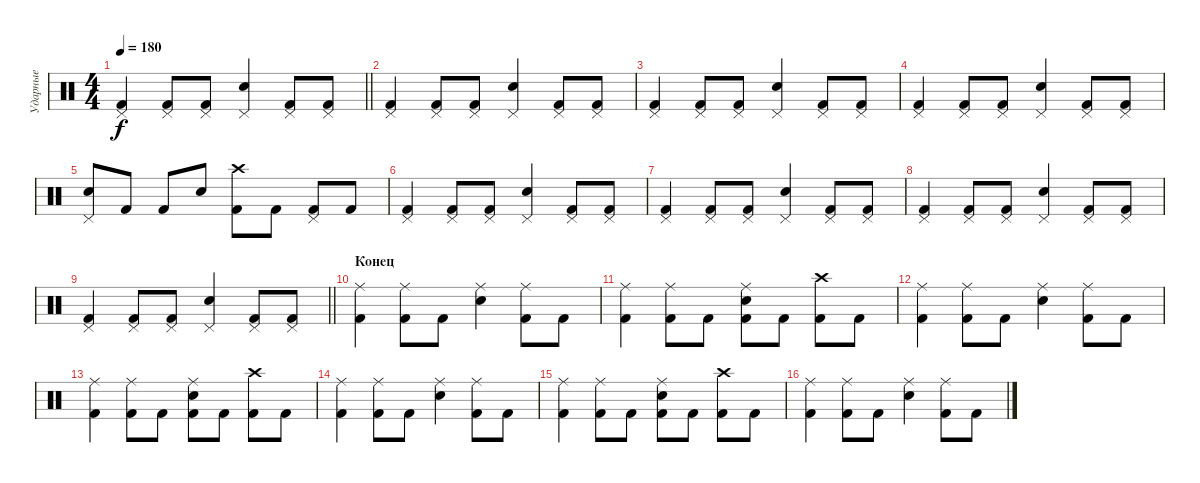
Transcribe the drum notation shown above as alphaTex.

\track ("Ударные" "Ударные") {instrument percussion}
\staff {score}
\articulation defaults
\ts (4 4)
\tempo 180
\clef neutral
\barLineRight lightlight
\ks c
("Kick (hit) 2" "Pedal Hi-Hat (hit)").4{dy f} ("Kick (hit) 2" "Pedal Hi-Hat (hit)").8 ("Kick (hit) 2" "Pedal Hi-Hat (hit)").8 ("Snare (hit) 2" "Pedal Hi-Hat (hit)").4 ("Kick (hit) 2" "Pedal Hi-Hat (hit)").8 ("Kick (hit) 2" "Pedal Hi-Hat (hit)").8 |
("Kick (hit) 2" "Pedal Hi-Hat (hit)").4 ("Kick (hit) 2" "Pedal Hi-Hat (hit)").8 ("Kick (hit) 2" "Pedal Hi-Hat (hit)").8 ("Snare (hit) 2" "Pedal Hi-Hat (hit)").4 ("Kick (hit) 2" "Pedal Hi-Hat (hit)").8 ("Kick (hit) 2" "Pedal Hi-Hat (hit)").8 |
("Kick (hit) 2" "Pedal Hi-Hat (hit)").4 ("Kick (hit) 2" "Pedal Hi-Hat (hit)").8 ("Kick (hit) 2" "Pedal Hi-Hat (hit)").8 ("Snare (hit) 2" "Pedal Hi-Hat (hit)").4 ("Kick (hit) 2" "Pedal Hi-Hat (hit)").8 ("Kick (hit) 2" "Pedal Hi-Hat (hit)").8 |
("Kick (hit) 2" "Pedal Hi-Hat (hit)").4 ("Kick (hit) 2" "Pedal Hi-Hat (hit)").8 ("Kick (hit) 2" "Pedal Hi-Hat (hit)").8 ("Snare (hit) 2" "Pedal Hi-Hat (hit)").4 ("Kick (hit) 2" "Pedal Hi-Hat (hit)").8 ("Kick (hit) 2" "Pedal Hi-Hat (hit)").8 |
("Snare (hit) 2" "Pedal Hi-Hat (hit)").8 "Kick (hit) 2".8 "Kick (hit) 2".8 "Snare (hit) 2".8 ("Kick (hit) 2" "Crash high (hit)").8 "Kick (hit) 2".8 ("Kick (hit) 2" "Pedal Hi-Hat (hit)").8 "Kick (hit) 2".8 |
("Kick (hit) 2" "Pedal Hi-Hat (hit)").4 ("Kick (hit) 2" "Pedal Hi-Hat (hit)").8 ("Kick (hit) 2" "Pedal Hi-Hat (hit)").8 ("Snare (hit) 2" "Pedal Hi-Hat (hit)").4 ("Kick (hit) 2" "Pedal Hi-Hat (hit)").8 ("Kick (hit) 2" "Pedal Hi-Hat (hit)").8 |
("Kick (hit) 2" "Pedal Hi-Hat (hit)").4 ("Kick (hit) 2" "Pedal Hi-Hat (hit)").8 ("Kick (hit) 2" "Pedal Hi-Hat (hit)").8 ("Snare (hit) 2" "Pedal Hi-Hat (hit)").4 ("Kick (hit) 2" "Pedal Hi-Hat (hit)").8 ("Kick (hit) 2" "Pedal Hi-Hat (hit)").8 |
("Kick (hit) 2" "Pedal Hi-Hat (hit)").4 ("Kick (hit) 2" "Pedal Hi-Hat (hit)").8 ("Kick (hit) 2" "Pedal Hi-Hat (hit)").8 ("Snare (hit) 2" "Pedal Hi-Hat (hit)").4 ("Kick (hit) 2" "Pedal Hi-Hat (hit)").8 ("Kick (hit) 2" "Pedal Hi-Hat (hit)").8 |
\barLineRight lightlight
("Kick (hit) 2" "Pedal Hi-Hat (hit)").4 ("Kick (hit) 2" "Pedal Hi-Hat (hit)").8 ("Kick (hit) 2" "Pedal Hi-Hat (hit)").8 ("Snare (hit) 2" "Pedal Hi-Hat (hit)").4 ("Kick (hit) 2" "Pedal Hi-Hat (hit)").8 ("Kick (hit) 2" "Pedal Hi-Hat (hit)").8 |
\section ("" "Конец")
("Kick (hit) 2" "Ride (middle)").4 ("Kick (hit) 2" "Ride (middle)").8 "Kick (hit) 2".8 ("Snare (hit) 2" "Ride (middle)").4 ("Kick (hit) 2" "Ride (middle)").8 "Kick (hit) 2".8 |
("Kick (hit) 2" "Ride (middle)").4 ("Kick (hit) 2" "Ride (middle)").8 "Kick (hit) 2".8 ("Kick (hit) 2" "Snare (hit) 2" "Ride (middle)").8 "Kick (hit) 2".8 ("Kick (hit) 2" "Crash high (hit)").8 "Kick (hit) 2".8 |
("Kick (hit) 2" "Ride (middle)").4 ("Kick (hit) 2" "Ride (middle)").8 "Kick (hit) 2".8 ("Snare (hit) 2" "Ride (middle)").4 ("Kick (hit) 2" "Ride (middle)").8 "Kick (hit) 2".8 |
("Kick (hit) 2" "Ride (middle)").4 ("Kick (hit) 2" "Ride (middle)").8 "Kick (hit) 2".8 ("Kick (hit) 2" "Snare (hit) 2" "Ride (middle)").8 "Kick (hit) 2".8 ("Kick (hit) 2" "Crash high (hit)").8 "Kick (hit) 2".8 |
("Kick (hit) 2" "Ride (middle)").4 ("Kick (hit) 2" "Ride (middle)").8 "Kick (hit) 2".8 ("Snare (hit) 2" "Ride (middle)").4 ("Kick (hit) 2" "Ride (middle)").8 "Kick (hit) 2".8 |
("Kick (hit) 2" "Ride (middle)").4 ("Kick (hit) 2" "Ride (middle)").8 "Kick (hit) 2".8 ("Kick (hit) 2" "Snare (hit) 2" "Ride (middle)").8 "Kick (hit) 2".8 ("Kick (hit) 2" "Crash high (hit)").8 "Kick (hit) 2".8 |
("Kick (hit) 2" "Ride (middle)").4 ("Kick (hit) 2" "Ride (middle)").8 "Kick (hit) 2".8 ("Snare (hit) 2" "Ride (middle)").4 ("Kick (hit) 2" "Ride (middle)").8 "Kick (hit) 2".8
